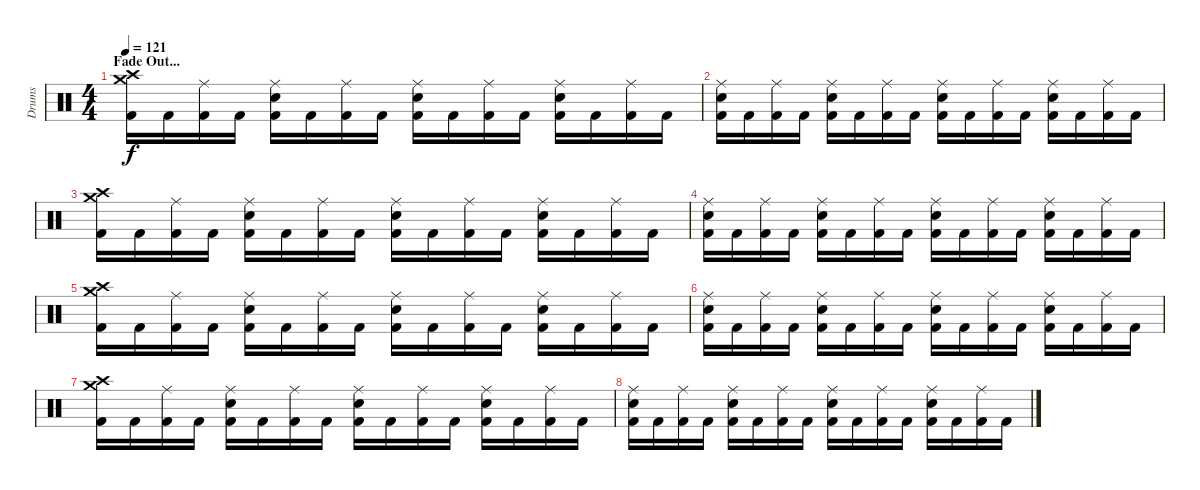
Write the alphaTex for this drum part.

\track ("Drums" "Drums") {instrument percussion}
\staff {score}
\articulation defaults
\ts (4 4)
\section ("" "Fade Out...")
\tempo 121
\clef neutral
\ks c
("Crash high (hit)" "Crash medium (hit)" "Kick (hit) 2").16{dy f volume 10} "Kick (hit) 2".16 ("Ride (middle)" "Kick (hit) 2").16 "Kick (hit) 2".16 ("Ride (middle)" "Snare (hit) 2" "Kick (hit) 2").16 "Kick (hit) 2".16 ("Ride (middle)" "Kick (hit) 2").16 "Kick (hit) 2".16 ("Ride (middle)" "Snare (hit) 2" "Kick (hit) 2").16 "Kick (hit) 2".16 ("Ride (middle)" "Kick (hit) 2").16 "Kick (hit) 2".16 ("Ride (middle)" "Snare (hit) 2" "Kick (hit) 2").16 "Kick (hit) 2".16 ("Ride (middle)" "Kick (hit) 2").16 "Kick (hit) 2".16 |
("Ride (middle)" "Snare (hit) 2" "Kick (hit) 2").16 "Kick (hit) 2".16 ("Ride (middle)" "Kick (hit) 2").16 "Kick (hit) 2".16 ("Ride (middle)" "Snare (hit) 2" "Kick (hit) 2").16 "Kick (hit) 2".16 ("Ride (middle)" "Kick (hit) 2").16 "Kick (hit) 2".16 ("Ride (middle)" "Snare (hit) 2" "Kick (hit) 2").16 "Kick (hit) 2".16 ("Ride (middle)" "Kick (hit) 2").16 "Kick (hit) 2".16 ("Ride (middle)" "Snare (hit) 2" "Kick (hit) 2").16 "Kick (hit) 2".16 ("Ride (middle)" "Kick (hit) 2").16 "Kick (hit) 2".16 |
("Crash high (hit)" "Crash medium (hit)" "Kick (hit) 2").16{volume 6} "Kick (hit) 2".16 ("Ride (middle)" "Kick (hit) 2").16 "Kick (hit) 2".16 ("Ride (middle)" "Snare (hit) 2" "Kick (hit) 2").16 "Kick (hit) 2".16 ("Ride (middle)" "Kick (hit) 2").16 "Kick (hit) 2".16 ("Ride (middle)" "Snare (hit) 2" "Kick (hit) 2").16 "Kick (hit) 2".16 ("Ride (middle)" "Kick (hit) 2").16 "Kick (hit) 2".16 ("Ride (middle)" "Snare (hit) 2" "Kick (hit) 2").16 "Kick (hit) 2".16 ("Ride (middle)" "Kick (hit) 2").16 "Kick (hit) 2".16 |
("Ride (middle)" "Snare (hit) 2" "Kick (hit) 2").16 "Kick (hit) 2".16 ("Ride (middle)" "Kick (hit) 2").16 "Kick (hit) 2".16 ("Ride (middle)" "Snare (hit) 2" "Kick (hit) 2").16 "Kick (hit) 2".16 ("Ride (middle)" "Kick (hit) 2").16 "Kick (hit) 2".16 ("Ride (middle)" "Snare (hit) 2" "Kick (hit) 2").16 "Kick (hit) 2".16 ("Ride (middle)" "Kick (hit) 2").16 "Kick (hit) 2".16 ("Ride (middle)" "Snare (hit) 2" "Kick (hit) 2").16 "Kick (hit) 2".16 ("Ride (middle)" "Kick (hit) 2").16 "Kick (hit) 2".16 |
("Crash high (hit)" "Crash medium (hit)" "Kick (hit) 2").16{volume 3} "Kick (hit) 2".16 ("Ride (middle)" "Kick (hit) 2").16 "Kick (hit) 2".16 ("Ride (middle)" "Snare (hit) 2" "Kick (hit) 2").16 "Kick (hit) 2".16 ("Ride (middle)" "Kick (hit) 2").16 "Kick (hit) 2".16 ("Ride (middle)" "Snare (hit) 2" "Kick (hit) 2").16 "Kick (hit) 2".16 ("Ride (middle)" "Kick (hit) 2").16 "Kick (hit) 2".16 ("Ride (middle)" "Snare (hit) 2" "Kick (hit) 2").16 "Kick (hit) 2".16 ("Ride (middle)" "Kick (hit) 2").16 "Kick (hit) 2".16 |
("Ride (middle)" "Snare (hit) 2" "Kick (hit) 2").16 "Kick (hit) 2".16 ("Ride (middle)" "Kick (hit) 2").16 "Kick (hit) 2".16 ("Ride (middle)" "Snare (hit) 2" "Kick (hit) 2").16 "Kick (hit) 2".16 ("Ride (middle)" "Kick (hit) 2").16 "Kick (hit) 2".16 ("Ride (middle)" "Snare (hit) 2" "Kick (hit) 2").16 "Kick (hit) 2".16 ("Ride (middle)" "Kick (hit) 2").16 "Kick (hit) 2".16 ("Ride (middle)" "Snare (hit) 2" "Kick (hit) 2").16 "Kick (hit) 2".16 ("Ride (middle)" "Kick (hit) 2").16 "Kick (hit) 2".16 |
("Crash high (hit)" "Crash medium (hit)" "Kick (hit) 2").16{volume 0} "Kick (hit) 2".16 ("Ride (middle)" "Kick (hit) 2").16 "Kick (hit) 2".16 ("Ride (middle)" "Snare (hit) 2" "Kick (hit) 2").16 "Kick (hit) 2".16 ("Ride (middle)" "Kick (hit) 2").16 "Kick (hit) 2".16 ("Ride (middle)" "Snare (hit) 2" "Kick (hit) 2").16 "Kick (hit) 2".16 ("Ride (middle)" "Kick (hit) 2").16 "Kick (hit) 2".16 ("Ride (middle)" "Snare (hit) 2" "Kick (hit) 2").16 "Kick (hit) 2".16 ("Ride (middle)" "Kick (hit) 2").16 "Kick (hit) 2".16 |
("Ride (middle)" "Snare (hit) 2" "Kick (hit) 2").16 "Kick (hit) 2".16 ("Ride (middle)" "Kick (hit) 2").16 "Kick (hit) 2".16 ("Ride (middle)" "Snare (hit) 2" "Kick (hit) 2").16 "Kick (hit) 2".16 ("Ride (middle)" "Kick (hit) 2").16 "Kick (hit) 2".16 ("Ride (middle)" "Snare (hit) 2" "Kick (hit) 2").16 "Kick (hit) 2".16 ("Ride (middle)" "Kick (hit) 2").16 "Kick (hit) 2".16 ("Ride (middle)" "Snare (hit) 2" "Kick (hit) 2").16 "Kick (hit) 2".16 ("Ride (middle)" "Kick (hit) 2").16 "Kick (hit) 2".16
